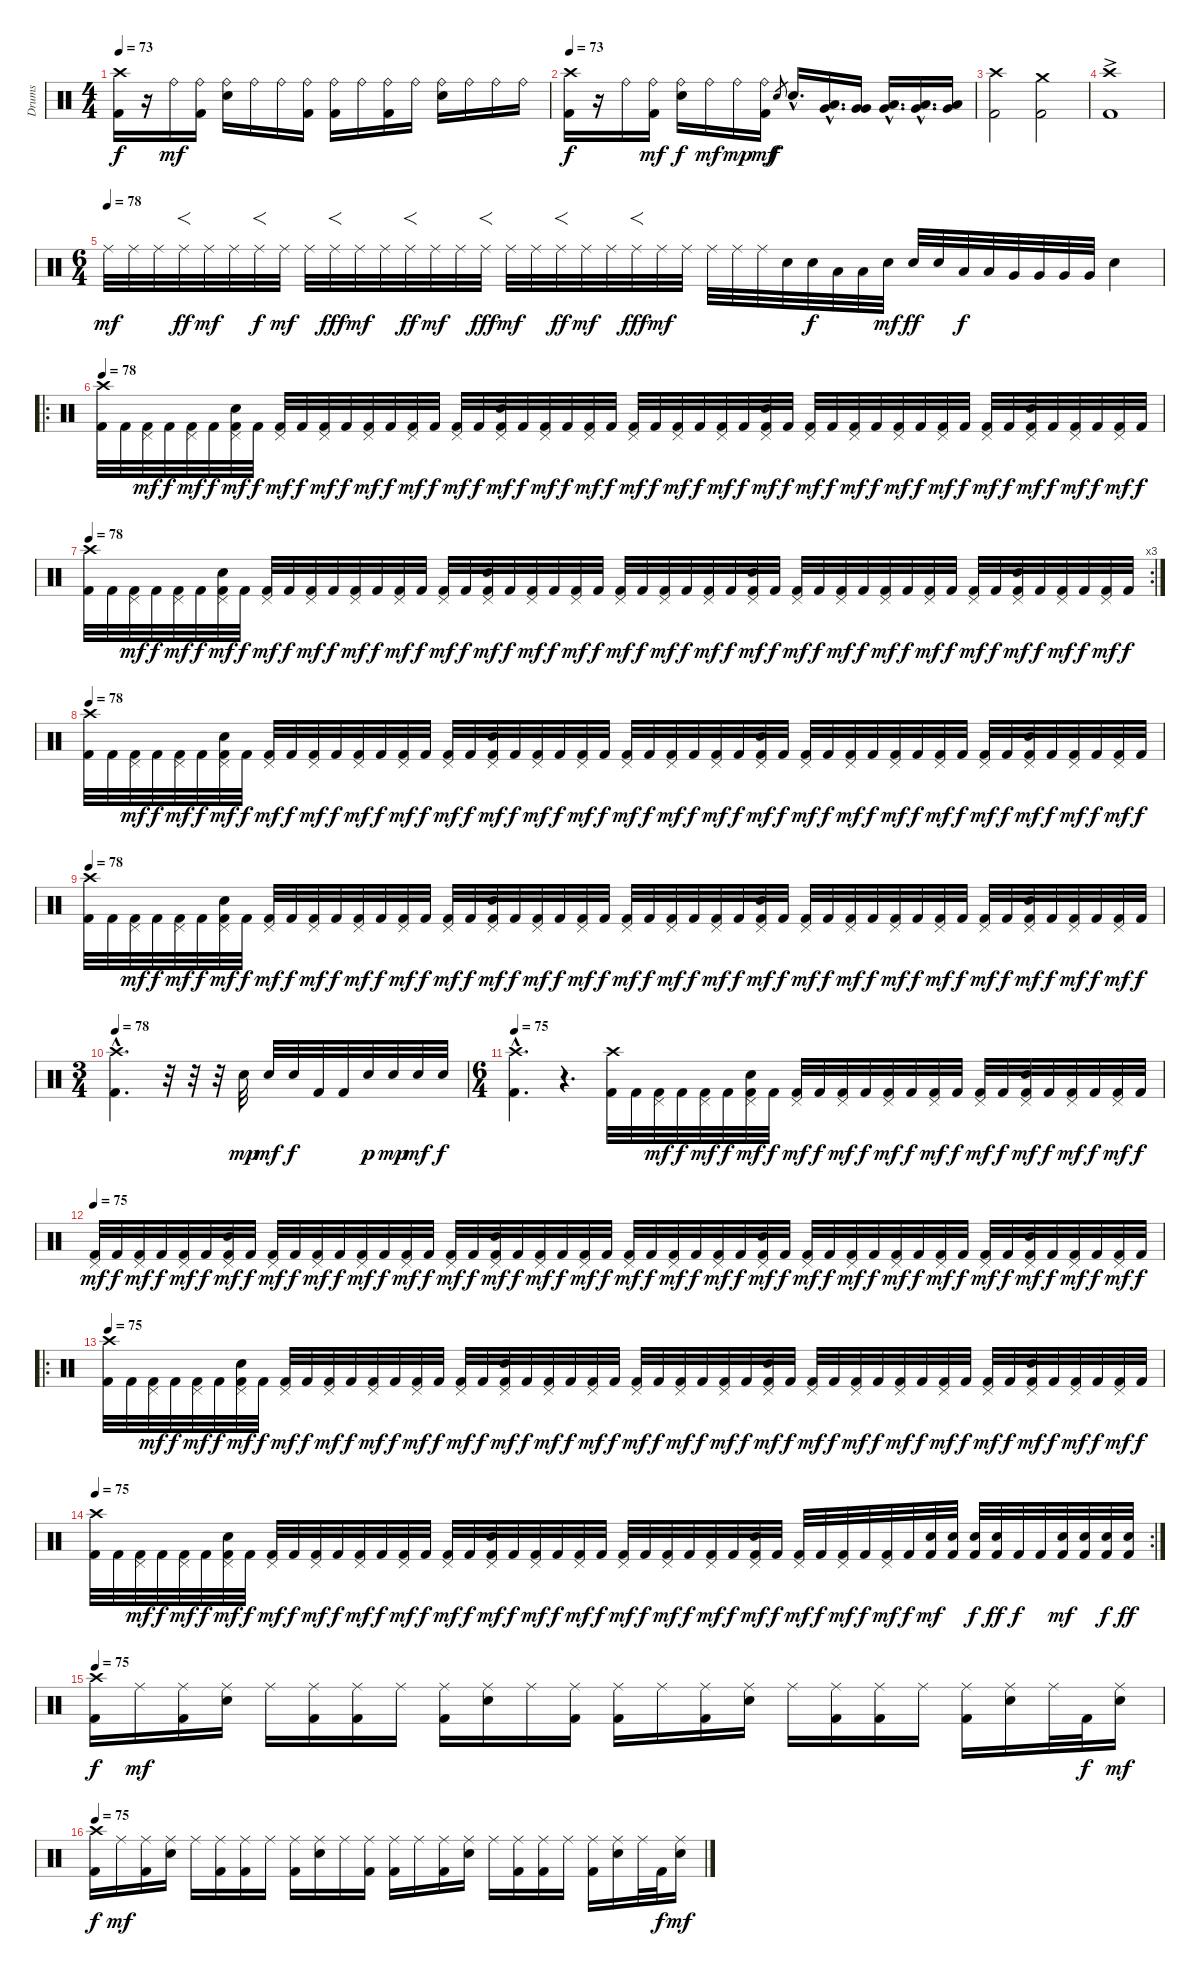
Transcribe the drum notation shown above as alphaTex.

\track ("Drums" "Drums") {instrument percussion}
\staff {score}
\articulation defaults
\ts (4 4)
\tempo 73
\clef neutral
\ks c
("Crash high (hit)" "Kick (hit) 2").16{dy f} r.16 "Ride (bell)".16{dy mf} ("Ride (bell)" "Kick (hit) 2").16 ("Ride (bell)" "Electric Snare (hit)").16 "Ride (bell)".16 "Ride (bell)".16 ("Ride (bell)" "Kick (hit) 2").16 ("Ride (bell)" "Kick (hit) 2").16 "Ride (bell)".16 ("Ride (bell)" "Kick (hit) 2").16 "Ride (bell)".16 ("Ride (bell)" "Electric Snare (hit)").16 "Ride (bell)".16 "Ride (bell)".16 "Ride (bell)".16 |
\tempo 73
("Crash high (hit)" "Kick (hit) 2").16{dy f} r.16 "Ride (bell)".16 ("Ride (bell)" "Kick (hit) 2").16{dy mf} ("Ride (bell)" "Electric Snare (hit)").16{dy f} "Ride (bell)".16{dy mf} "Ride (bell)".16{dy mp} ("Ride (bell)" "Kick (hit) 2").16{dy mf} "Electric Snare (hit)".8{gr dy f} "Electric Snare (hit)"{hac}.16{d} ("Low Tom (hit)"{hac} "Very Low Tom (hit)"{hac}).16{d} ("Very Low Tom (hit)" "Very Low Tom (hit)").16 ("Very Low Tom (hit)"{hac} "Low Floor Tom (hit)"{hac}).16{d} ("Very Low Tom (hit)"{hac} "Low Floor Tom (hit)"{hac}).16{d} ("Low Tom (hit)" "Very Low Tom (hit)").16 |
("Crash high (hit)" "Kick (hit) 2").2 ("Crash medium (hit)" "Kick (hit) 2").2 |
("Crash high (hit)"{ac} "Kick (hit) 2").1 |
\ts (6 4)
\tempo (78)
"Ride (middle)".32{dy mf} "Ride (middle)".32 "Ride (middle)".32 "Ride (middle)".32{f dy ff} "Ride (middle)".32{dy mf} "Ride (middle)".32 "Ride (middle)".32{f dy f} "Ride (middle)".32{dy mf} "Ride (middle)".32 "Ride (middle)".32{f dy fff} "Ride (middle)".32{dy mf} "Ride (middle)".32 "Ride (middle)".32{f dy ff} "Ride (middle)".32{dy mf} "Ride (middle)".32 "Ride (middle)".32{f dy fff} "Ride (middle)".32{dy mf} "Ride (middle)".32 "Ride (middle)".32{f dy ff} "Ride (middle)".32{dy mf} "Ride (middle)".32 "Ride (middle)".32{f dy fff} "Ride (middle)".32{dy mf} "Ride (middle)".32 "Ride (middle)".32 "Ride (middle)".32 "Ride (middle)".32 "Electric Snare (hit)".32 "Electric Snare (hit)".32{dy f} "Low Tom (hit)".32 "Low Tom (hit)".32 "Electric Snare (hit)".32{dy mf} "Electric Snare (hit)".32{dy ff} "Electric Snare (hit)".32 "Low Tom (hit)".32{dy f} "Low Tom (hit)".32 "Very Low Tom (hit)".32 "Very Low Tom (hit)".32 "Very Low Tom (hit)".32 "Very Low Tom (hit)".32 "Electric Snare (hit)".4 |
\ro
\tempo 78
("Crash high (hit)" "Kick (hit) 2").32 "Kick (hit) 2".32 ("Pedal Hi-Hat (hit)" "Kick (hit) 2").32{dy mf} "Kick (hit) 2".32{dy f} ("Pedal Hi-Hat (hit)" "Kick (hit) 2").32{dy mf} "Kick (hit) 2".32{dy f} ("Pedal Hi-Hat (hit)" "Electric Snare (hit)" "Kick (hit) 2").32{dy mf} "Kick (hit) 2".32{dy f} ("Pedal Hi-Hat (hit)" "Kick (hit) 2").32{dy mf} "Kick (hit) 2".32{dy f} ("Pedal Hi-Hat (hit)" "Kick (hit) 2").32{dy mf} "Kick (hit) 2".32{dy f} ("Pedal Hi-Hat (hit)" "Kick (hit) 2").32{dy mf} "Kick (hit) 2".32{dy f} ("Pedal Hi-Hat (hit)" "Kick (hit) 2").32{dy mf} "Kick (hit) 2".32{dy f} ("Pedal Hi-Hat (hit)" "Kick (hit) 2").32{dy mf} "Kick (hit) 2".32{dy f} ("Pedal Hi-Hat (hit)" "Electric Snare (hit)" "Kick (hit) 2").32{dy mf} "Kick (hit) 2".32{dy f} ("Pedal Hi-Hat (hit)" "Kick (hit) 2").32{dy mf} "Kick (hit) 2".32{dy f} ("Pedal Hi-Hat (hit)" "Kick (hit) 2").32{dy mf} "Kick (hit) 2".32{dy f} ("Pedal Hi-Hat (hit)" "Kick (hit) 2").32{dy mf} "Kick (hit) 2".32{dy f} ("Pedal Hi-Hat (hit)" "Kick (hit) 2").32{dy mf} "Kick (hit) 2".32{dy f} ("Pedal Hi-Hat (hit)" "Kick (hit) 2").32{dy mf} "Kick (hit) 2".32{dy f} ("Pedal Hi-Hat (hit)" "Electric Snare (hit)" "Kick (hit) 2").32{dy mf} "Kick (hit) 2".32{dy f} ("Pedal Hi-Hat (hit)" "Kick (hit) 2").32{dy mf} "Kick (hit) 2".32{dy f} ("Pedal Hi-Hat (hit)" "Kick (hit) 2").32{dy mf} "Kick (hit) 2".32{dy f} ("Pedal Hi-Hat (hit)" "Kick (hit) 2").32{dy mf} "Kick (hit) 2".32{dy f} ("Pedal Hi-Hat (hit)" "Kick (hit) 2").32{dy mf} "Kick (hit) 2".32{dy f} ("Pedal Hi-Hat (hit)" "Kick (hit) 2").32{dy mf} "Kick (hit) 2".32{dy f} ("Pedal Hi-Hat (hit)" "Electric Snare (hit)" "Kick (hit) 2").32{dy mf} "Kick (hit) 2".32{dy f} ("Pedal Hi-Hat (hit)" "Kick (hit) 2").32{dy mf} "Kick (hit) 2".32{dy f} ("Pedal Hi-Hat (hit)" "Kick (hit) 2").32{dy mf} "Kick (hit) 2".32{dy f} |
\rc 3
\tempo 78
("Crash high (hit)" "Kick (hit) 2").32 "Kick (hit) 2".32 ("Pedal Hi-Hat (hit)" "Kick (hit) 2").32{dy mf} "Kick (hit) 2".32{dy f} ("Pedal Hi-Hat (hit)" "Kick (hit) 2").32{dy mf} "Kick (hit) 2".32{dy f} ("Pedal Hi-Hat (hit)" "Electric Snare (hit)" "Kick (hit) 2").32{dy mf} "Kick (hit) 2".32{dy f} ("Pedal Hi-Hat (hit)" "Kick (hit) 2").32{dy mf} "Kick (hit) 2".32{dy f} ("Pedal Hi-Hat (hit)" "Kick (hit) 2").32{dy mf} "Kick (hit) 2".32{dy f} ("Pedal Hi-Hat (hit)" "Kick (hit) 2").32{dy mf} "Kick (hit) 2".32{dy f} ("Pedal Hi-Hat (hit)" "Kick (hit) 2").32{dy mf} "Kick (hit) 2".32{dy f} ("Pedal Hi-Hat (hit)" "Kick (hit) 2").32{dy mf} "Kick (hit) 2".32{dy f} ("Pedal Hi-Hat (hit)" "Electric Snare (hit)" "Kick (hit) 2").32{dy mf} "Kick (hit) 2".32{dy f} ("Pedal Hi-Hat (hit)" "Kick (hit) 2").32{dy mf} "Kick (hit) 2".32{dy f} ("Pedal Hi-Hat (hit)" "Kick (hit) 2").32{dy mf} "Kick (hit) 2".32{dy f} ("Pedal Hi-Hat (hit)" "Kick (hit) 2").32{dy mf} "Kick (hit) 2".32{dy f} ("Pedal Hi-Hat (hit)" "Kick (hit) 2").32{dy mf} "Kick (hit) 2".32{dy f} ("Pedal Hi-Hat (hit)" "Kick (hit) 2").32{dy mf} "Kick (hit) 2".32{dy f} ("Pedal Hi-Hat (hit)" "Electric Snare (hit)" "Kick (hit) 2").32{dy mf} "Kick (hit) 2".32{dy f} ("Pedal Hi-Hat (hit)" "Kick (hit) 2").32{dy mf} "Kick (hit) 2".32{dy f} ("Pedal Hi-Hat (hit)" "Kick (hit) 2").32{dy mf} "Kick (hit) 2".32{dy f} ("Pedal Hi-Hat (hit)" "Kick (hit) 2").32{dy mf} "Kick (hit) 2".32{dy f} ("Pedal Hi-Hat (hit)" "Kick (hit) 2").32{dy mf} "Kick (hit) 2".32{dy f} ("Pedal Hi-Hat (hit)" "Kick (hit) 2").32{dy mf} "Kick (hit) 2".32{dy f} ("Pedal Hi-Hat (hit)" "Electric Snare (hit)" "Kick (hit) 2").32{dy mf} "Kick (hit) 2".32{dy f} ("Pedal Hi-Hat (hit)" "Kick (hit) 2").32{dy mf} "Kick (hit) 2".32{dy f} ("Pedal Hi-Hat (hit)" "Kick (hit) 2").32{dy mf} "Kick (hit) 2".32{dy f} |
\tempo 78
("Crash high (hit)" "Kick (hit) 2").32 "Kick (hit) 2".32 ("Pedal Hi-Hat (hit)" "Kick (hit) 2").32{dy mf} "Kick (hit) 2".32{dy f} ("Pedal Hi-Hat (hit)" "Kick (hit) 2").32{dy mf} "Kick (hit) 2".32{dy f} ("Pedal Hi-Hat (hit)" "Electric Snare (hit)" "Kick (hit) 2").32{dy mf} "Kick (hit) 2".32{dy f} ("Pedal Hi-Hat (hit)" "Kick (hit) 2").32{dy mf} "Kick (hit) 2".32{dy f} ("Pedal Hi-Hat (hit)" "Kick (hit) 2").32{dy mf} "Kick (hit) 2".32{dy f} ("Pedal Hi-Hat (hit)" "Kick (hit) 2").32{dy mf} "Kick (hit) 2".32{dy f} ("Pedal Hi-Hat (hit)" "Kick (hit) 2").32{dy mf} "Kick (hit) 2".32{dy f} ("Pedal Hi-Hat (hit)" "Kick (hit) 2").32{dy mf} "Kick (hit) 2".32{dy f} ("Pedal Hi-Hat (hit)" "Electric Snare (hit)" "Kick (hit) 2").32{dy mf} "Kick (hit) 2".32{dy f} ("Pedal Hi-Hat (hit)" "Kick (hit) 2").32{dy mf} "Kick (hit) 2".32{dy f} ("Pedal Hi-Hat (hit)" "Kick (hit) 2").32{dy mf} "Kick (hit) 2".32{dy f} ("Pedal Hi-Hat (hit)" "Kick (hit) 2").32{dy mf} "Kick (hit) 2".32{dy f} ("Pedal Hi-Hat (hit)" "Kick (hit) 2").32{dy mf} "Kick (hit) 2".32{dy f} ("Pedal Hi-Hat (hit)" "Kick (hit) 2").32{dy mf} "Kick (hit) 2".32{dy f} ("Pedal Hi-Hat (hit)" "Electric Snare (hit)" "Kick (hit) 2").32{dy mf} "Kick (hit) 2".32{dy f} ("Pedal Hi-Hat (hit)" "Kick (hit) 2").32{dy mf} "Kick (hit) 2".32{dy f} ("Pedal Hi-Hat (hit)" "Kick (hit) 2").32{dy mf} "Kick (hit) 2".32{dy f} ("Pedal Hi-Hat (hit)" "Kick (hit) 2").32{dy mf} "Kick (hit) 2".32{dy f} ("Pedal Hi-Hat (hit)" "Kick (hit) 2").32{dy mf} "Kick (hit) 2".32{dy f} ("Pedal Hi-Hat (hit)" "Kick (hit) 2").32{dy mf} "Kick (hit) 2".32{dy f} ("Pedal Hi-Hat (hit)" "Electric Snare (hit)" "Kick (hit) 2").32{dy mf} "Kick (hit) 2".32{dy f} ("Pedal Hi-Hat (hit)" "Kick (hit) 2").32{dy mf} "Kick (hit) 2".32{dy f} ("Pedal Hi-Hat (hit)" "Kick (hit) 2").32{dy mf} "Kick (hit) 2".32{dy f} |
\tempo 78
("Crash high (hit)" "Kick (hit) 2").32 "Kick (hit) 2".32 ("Pedal Hi-Hat (hit)" "Kick (hit) 2").32{dy mf} "Kick (hit) 2".32{dy f} ("Pedal Hi-Hat (hit)" "Kick (hit) 2").32{dy mf} "Kick (hit) 2".32{dy f} ("Pedal Hi-Hat (hit)" "Electric Snare (hit)" "Kick (hit) 2").32{dy mf} "Kick (hit) 2".32{dy f} ("Pedal Hi-Hat (hit)" "Kick (hit) 2").32{dy mf} "Kick (hit) 2".32{dy f} ("Pedal Hi-Hat (hit)" "Kick (hit) 2").32{dy mf} "Kick (hit) 2".32{dy f} ("Pedal Hi-Hat (hit)" "Kick (hit) 2").32{dy mf} "Kick (hit) 2".32{dy f} ("Pedal Hi-Hat (hit)" "Kick (hit) 2").32{dy mf} "Kick (hit) 2".32{dy f} ("Pedal Hi-Hat (hit)" "Kick (hit) 2").32{dy mf} "Kick (hit) 2".32{dy f} ("Pedal Hi-Hat (hit)" "Electric Snare (hit)" "Kick (hit) 2").32{dy mf} "Kick (hit) 2".32{dy f} ("Pedal Hi-Hat (hit)" "Kick (hit) 2").32{dy mf} "Kick (hit) 2".32{dy f} ("Pedal Hi-Hat (hit)" "Kick (hit) 2").32{dy mf} "Kick (hit) 2".32{dy f} ("Pedal Hi-Hat (hit)" "Kick (hit) 2").32{dy mf} "Kick (hit) 2".32{dy f} ("Pedal Hi-Hat (hit)" "Kick (hit) 2").32{dy mf} "Kick (hit) 2".32{dy f} ("Pedal Hi-Hat (hit)" "Kick (hit) 2").32{dy mf} "Kick (hit) 2".32{dy f} ("Pedal Hi-Hat (hit)" "Electric Snare (hit)" "Kick (hit) 2").32{dy mf} "Kick (hit) 2".32{dy f} ("Pedal Hi-Hat (hit)" "Kick (hit) 2").32{dy mf} "Kick (hit) 2".32{dy f} ("Pedal Hi-Hat (hit)" "Kick (hit) 2").32{dy mf} "Kick (hit) 2".32{dy f} ("Pedal Hi-Hat (hit)" "Kick (hit) 2").32{dy mf} "Kick (hit) 2".32{dy f} ("Pedal Hi-Hat (hit)" "Kick (hit) 2").32{dy mf} "Kick (hit) 2".32{dy f} ("Pedal Hi-Hat (hit)" "Kick (hit) 2").32{dy mf} "Kick (hit) 2".32{dy f} ("Pedal Hi-Hat (hit)" "Electric Snare (hit)" "Kick (hit) 2").32{dy mf} "Kick (hit) 2".32{dy f} ("Pedal Hi-Hat (hit)" "Kick (hit) 2").32{dy mf} "Kick (hit) 2".32{dy f} ("Pedal Hi-Hat (hit)" "Kick (hit) 2").32{dy mf} "Kick (hit) 2".32{dy f} |
\ts (3 4)
\tempo 78
("Crash high (hit)"{hac} "Kick (hit) 2"{hac}).4{d} r.32 r.32 r.32 "Electric Snare (hit)".32{dy mp} "Electric Snare (hit)".32{dy mf} "Electric Snare (hit)".32{dy f} "Kick (hit) 2".32 "Kick (hit) 2".32 "Electric Snare (hit)".32{dy p} "Electric Snare (hit)".32{dy mp} "Electric Snare (hit)".32{dy mf} "Electric Snare (hit)".32{dy f} |
\ts (6 4)
\tempo 75
("Crash high (hit)"{hac} "Kick (hit) 2"{hac}).4{d} r.4{d} ("Crash high (hit)" "Kick (hit) 2").32 "Kick (hit) 2".32 ("Pedal Hi-Hat (hit)" "Kick (hit) 2").32{dy mf} "Kick (hit) 2".32{dy f} ("Pedal Hi-Hat (hit)" "Kick (hit) 2").32{dy mf} "Kick (hit) 2".32{dy f} ("Pedal Hi-Hat (hit)" "Electric Snare (hit)" "Kick (hit) 2").32{dy mf} "Kick (hit) 2".32{dy f} ("Pedal Hi-Hat (hit)" "Kick (hit) 2").32{dy mf} "Kick (hit) 2".32{dy f} ("Pedal Hi-Hat (hit)" "Kick (hit) 2").32{dy mf} "Kick (hit) 2".32{dy f} ("Pedal Hi-Hat (hit)" "Kick (hit) 2").32{dy mf} "Kick (hit) 2".32{dy f} ("Pedal Hi-Hat (hit)" "Kick (hit) 2").32{dy mf} "Kick (hit) 2".32{dy f} ("Pedal Hi-Hat (hit)" "Kick (hit) 2").32{dy mf} "Kick (hit) 2".32{dy f} ("Pedal Hi-Hat (hit)" "Electric Snare (hit)" "Kick (hit) 2").32{dy mf} "Kick (hit) 2".32{dy f} ("Pedal Hi-Hat (hit)" "Kick (hit) 2").32{dy mf} "Kick (hit) 2".32{dy f} ("Pedal Hi-Hat (hit)" "Kick (hit) 2").32{dy mf} "Kick (hit) 2".32{dy f} |
\tempo 75
("Pedal Hi-Hat (hit)" "Kick (hit) 2").32{dy mf} "Kick (hit) 2".32{dy f} ("Pedal Hi-Hat (hit)" "Kick (hit) 2").32{dy mf} "Kick (hit) 2".32{dy f} ("Pedal Hi-Hat (hit)" "Kick (hit) 2").32{dy mf} "Kick (hit) 2".32{dy f} ("Pedal Hi-Hat (hit)" "Electric Snare (hit)" "Kick (hit) 2").32{dy mf} "Kick (hit) 2".32{dy f} ("Pedal Hi-Hat (hit)" "Kick (hit) 2").32{dy mf} "Kick (hit) 2".32{dy f} ("Pedal Hi-Hat (hit)" "Kick (hit) 2").32{dy mf} "Kick (hit) 2".32{dy f} ("Pedal Hi-Hat (hit)" "Kick (hit) 2").32{dy mf} "Kick (hit) 2".32{dy f} ("Pedal Hi-Hat (hit)" "Kick (hit) 2").32{dy mf} "Kick (hit) 2".32{dy f} ("Pedal Hi-Hat (hit)" "Kick (hit) 2").32{dy mf} "Kick (hit) 2".32{dy f} ("Pedal Hi-Hat (hit)" "Electric Snare (hit)" "Kick (hit) 2").32{dy mf} "Kick (hit) 2".32{dy f} ("Pedal Hi-Hat (hit)" "Kick (hit) 2").32{dy mf} "Kick (hit) 2".32{dy f} ("Pedal Hi-Hat (hit)" "Kick (hit) 2").32{dy mf} "Kick (hit) 2".32{dy f} ("Pedal Hi-Hat (hit)" "Kick (hit) 2").32{dy mf} "Kick (hit) 2".32{dy f} ("Pedal Hi-Hat (hit)" "Kick (hit) 2").32{dy mf} "Kick (hit) 2".32{dy f} ("Pedal Hi-Hat (hit)" "Kick (hit) 2").32{dy mf} "Kick (hit) 2".32{dy f} ("Pedal Hi-Hat (hit)" "Electric Snare (hit)" "Kick (hit) 2").32{dy mf} "Kick (hit) 2".32{dy f} ("Pedal Hi-Hat (hit)" "Kick (hit) 2").32{dy mf} "Kick (hit) 2".32{dy f} ("Pedal Hi-Hat (hit)" "Kick (hit) 2").32{dy mf} "Kick (hit) 2".32{dy f} ("Pedal Hi-Hat (hit)" "Kick (hit) 2").32{dy mf} "Kick (hit) 2".32{dy f} ("Pedal Hi-Hat (hit)" "Kick (hit) 2").32{dy mf} "Kick (hit) 2".32{dy f} ("Pedal Hi-Hat (hit)" "Kick (hit) 2").32{dy mf} "Kick (hit) 2".32{dy f} ("Pedal Hi-Hat (hit)" "Electric Snare (hit)" "Kick (hit) 2").32{dy mf} "Kick (hit) 2".32{dy f} ("Pedal Hi-Hat (hit)" "Kick (hit) 2").32{dy mf} "Kick (hit) 2".32{dy f} ("Pedal Hi-Hat (hit)" "Kick (hit) 2").32{dy mf} "Kick (hit) 2".32{dy f} |
\ro
\tempo 75
("Crash high (hit)" "Kick (hit) 2").32 "Kick (hit) 2".32 ("Pedal Hi-Hat (hit)" "Kick (hit) 2").32{dy mf} "Kick (hit) 2".32{dy f} ("Pedal Hi-Hat (hit)" "Kick (hit) 2").32{dy mf} "Kick (hit) 2".32{dy f} ("Pedal Hi-Hat (hit)" "Electric Snare (hit)" "Kick (hit) 2").32{dy mf} "Kick (hit) 2".32{dy f} ("Pedal Hi-Hat (hit)" "Kick (hit) 2").32{dy mf} "Kick (hit) 2".32{dy f} ("Pedal Hi-Hat (hit)" "Kick (hit) 2").32{dy mf} "Kick (hit) 2".32{dy f} ("Pedal Hi-Hat (hit)" "Kick (hit) 2").32{dy mf} "Kick (hit) 2".32{dy f} ("Pedal Hi-Hat (hit)" "Kick (hit) 2").32{dy mf} "Kick (hit) 2".32{dy f} ("Pedal Hi-Hat (hit)" "Kick (hit) 2").32{dy mf} "Kick (hit) 2".32{dy f} ("Pedal Hi-Hat (hit)" "Electric Snare (hit)" "Kick (hit) 2").32{dy mf} "Kick (hit) 2".32{dy f} ("Pedal Hi-Hat (hit)" "Kick (hit) 2").32{dy mf} "Kick (hit) 2".32{dy f} ("Pedal Hi-Hat (hit)" "Kick (hit) 2").32{dy mf} "Kick (hit) 2".32{dy f} ("Pedal Hi-Hat (hit)" "Kick (hit) 2").32{dy mf} "Kick (hit) 2".32{dy f} ("Pedal Hi-Hat (hit)" "Kick (hit) 2").32{dy mf} "Kick (hit) 2".32{dy f} ("Pedal Hi-Hat (hit)" "Kick (hit) 2").32{dy mf} "Kick (hit) 2".32{dy f} ("Pedal Hi-Hat (hit)" "Electric Snare (hit)" "Kick (hit) 2").32{dy mf} "Kick (hit) 2".32{dy f} ("Pedal Hi-Hat (hit)" "Kick (hit) 2").32{dy mf} "Kick (hit) 2".32{dy f} ("Pedal Hi-Hat (hit)" "Kick (hit) 2").32{dy mf} "Kick (hit) 2".32{dy f} ("Pedal Hi-Hat (hit)" "Kick (hit) 2").32{dy mf} "Kick (hit) 2".32{dy f} ("Pedal Hi-Hat (hit)" "Kick (hit) 2").32{dy mf} "Kick (hit) 2".32{dy f} ("Pedal Hi-Hat (hit)" "Kick (hit) 2").32{dy mf} "Kick (hit) 2".32{dy f} ("Pedal Hi-Hat (hit)" "Electric Snare (hit)" "Kick (hit) 2").32{dy mf} "Kick (hit) 2".32{dy f} ("Pedal Hi-Hat (hit)" "Kick (hit) 2").32{dy mf} "Kick (hit) 2".32{dy f} ("Pedal Hi-Hat (hit)" "Kick (hit) 2").32{dy mf} "Kick (hit) 2".32{dy f} |
\rc 2
\tempo 75
("Crash high (hit)" "Kick (hit) 2").32 "Kick (hit) 2".32 ("Pedal Hi-Hat (hit)" "Kick (hit) 2").32{dy mf} "Kick (hit) 2".32{dy f} ("Pedal Hi-Hat (hit)" "Kick (hit) 2").32{dy mf} "Kick (hit) 2".32{dy f} ("Pedal Hi-Hat (hit)" "Electric Snare (hit)" "Kick (hit) 2").32{dy mf} "Kick (hit) 2".32{dy f} ("Pedal Hi-Hat (hit)" "Kick (hit) 2").32{dy mf} "Kick (hit) 2".32{dy f} ("Pedal Hi-Hat (hit)" "Kick (hit) 2").32{dy mf} "Kick (hit) 2".32{dy f} ("Pedal Hi-Hat (hit)" "Kick (hit) 2").32{dy mf} "Kick (hit) 2".32{dy f} ("Pedal Hi-Hat (hit)" "Kick (hit) 2").32{dy mf} "Kick (hit) 2".32{dy f} ("Pedal Hi-Hat (hit)" "Kick (hit) 2").32{dy mf} "Kick (hit) 2".32{dy f} ("Pedal Hi-Hat (hit)" "Electric Snare (hit)" "Kick (hit) 2").32{dy mf} "Kick (hit) 2".32{dy f} ("Pedal Hi-Hat (hit)" "Kick (hit) 2").32{dy mf} "Kick (hit) 2".32{dy f} ("Pedal Hi-Hat (hit)" "Kick (hit) 2").32{dy mf} "Kick (hit) 2".32{dy f} ("Pedal Hi-Hat (hit)" "Kick (hit) 2").32{dy mf} "Kick (hit) 2".32{dy f} ("Pedal Hi-Hat (hit)" "Kick (hit) 2").32{dy mf} "Kick (hit) 2".32{dy f} ("Pedal Hi-Hat (hit)" "Kick (hit) 2").32{dy mf} "Kick (hit) 2".32{dy f} ("Pedal Hi-Hat (hit)" "Electric Snare (hit)" "Kick (hit) 2").32{dy mf} "Kick (hit) 2".32{dy f} ("Pedal Hi-Hat (hit)" "Kick (hit) 2").32{dy mf} "Kick (hit) 2".32{dy f} ("Pedal Hi-Hat (hit)" "Kick (hit) 2").32{dy mf} "Kick (hit) 2".32{dy f} ("Pedal Hi-Hat (hit)" "Kick (hit) 2").32{dy mf} "Kick (hit) 2".32{dy f} ("Electric Snare (hit)" "Kick (hit) 2").32{dy mf} ("Electric Snare (hit)" "Kick (hit) 2").32 ("Electric Snare (hit)" "Kick (hit) 2").32{dy f} ("Electric Snare (hit)" "Kick (hit) 2").32{dy ff} "Kick (hit) 2".32{dy f} "Kick (hit) 2".32 ("Electric Snare (hit)" "Kick (hit) 2").32{dy mf} ("Electric Snare (hit)" "Kick (hit) 2").32 ("Electric Snare (hit)" "Kick (hit) 2").32{dy f} ("Electric Snare (hit)" "Kick (hit) 2").32{dy ff} |
\tempo 75
("Crash high (hit)" "Kick (hit) 2").16{dy f} "Ride (middle)".16{dy mf} ("Ride (middle)" "Kick (hit) 2").16 ("Ride (middle)" "Electric Snare (hit)").16 "Ride (middle)".16 ("Ride (middle)" "Kick (hit) 2").16 ("Ride (middle)" "Kick (hit) 2").16 "Ride (middle)".16 ("Ride (middle)" "Kick (hit) 2").16 ("Ride (middle)" "Electric Snare (hit)").16 "Ride (middle)".16 ("Ride (middle)" "Kick (hit) 2").16 ("Ride (middle)" "Kick (hit) 2").16 "Ride (middle)".16 ("Ride (middle)" "Kick (hit) 2").16 ("Ride (middle)" "Electric Snare (hit)").16 "Ride (middle)".16 ("Ride (middle)" "Kick (hit) 2").16 ("Ride (middle)" "Kick (hit) 2").16 "Ride (middle)".16 ("Ride (middle)" "Kick (hit) 2").16 ("Ride (middle)" "Electric Snare (hit)").16 "Ride (middle)".32 "Kick (hit) 2".32{dy f} ("Ride (middle)" "Electric Snare (hit)").16{dy mf} |
\tempo 75
("Crash high (hit)" "Kick (hit) 2").16{dy f} "Ride (middle)".16{dy mf} ("Ride (middle)" "Kick (hit) 2").16 ("Ride (middle)" "Electric Snare (hit)").16 "Ride (middle)".16 ("Ride (middle)" "Kick (hit) 2").16 ("Ride (middle)" "Kick (hit) 2").16 "Ride (middle)".16 ("Ride (middle)" "Kick (hit) 2").16 ("Ride (middle)" "Electric Snare (hit)").16 "Ride (middle)".16 ("Ride (middle)" "Kick (hit) 2").16 ("Ride (middle)" "Kick (hit) 2").16 "Ride (middle)".16 ("Ride (middle)" "Kick (hit) 2").16 ("Ride (middle)" "Electric Snare (hit)").16 "Ride (middle)".16 ("Ride (middle)" "Kick (hit) 2").16 ("Ride (middle)" "Kick (hit) 2").16 "Ride (middle)".16 ("Ride (middle)" "Kick (hit) 2").16 ("Ride (middle)" "Electric Snare (hit)").16 "Ride (middle)".32 "Kick (hit) 2".32{dy f} ("Ride (middle)" "Electric Snare (hit)").16{dy mf}
